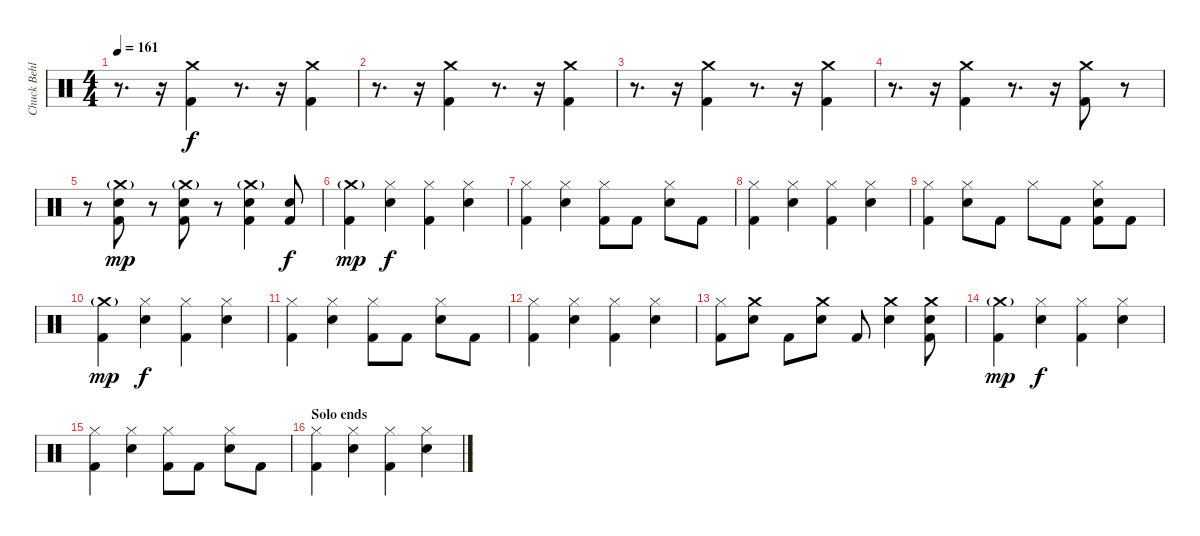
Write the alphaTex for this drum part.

\track ("Chuck Behler" "Chuck Behl") {instrument percussion}
\staff {score}
\articulation defaults
\ts (4 4)
\tempo 161
\clef neutral
\ks c
r.8{d dy f} r.16{volume 16} ("Crash medium (hit)" "Kick (hit) 2").4{volume 0} r.8{d} r.16{volume 16} ("Crash medium (hit)" "Kick (hit) 2").4{volume 0} |
r.8{d} r.16{volume 16} ("Crash medium (hit)" "Kick (hit) 2").4{volume 0} r.8{d} r.16{volume 16} ("Crash medium (hit)" "Kick (hit) 2").4{volume 0} |
r.8{d} r.16{volume 16} ("Crash medium (hit)" "Kick (hit) 2").4{volume 0} r.8{d} r.16{volume 16} ("Crash medium (hit)" "Kick (hit) 2").4{volume 0} |
r.8{d} r.16{volume 16} ("Crash medium (hit)" "Kick (hit) 2").4{volume 0} r.8{d} r.16{volume 16} ("Crash medium (hit)" "Kick (hit) 2").8{volume 7} r.8 |
r.8 ("Crash medium (hit)"{g} "Snare (hit) 2" "Kick (hit) 2").8{dy mp volume 16} r.8 ("Crash medium (hit)"{g} "Snare (hit) 2" "Kick (hit) 2").8{volume 16} r.8 ("Crash medium (hit)"{g} "Snare (hit) 2" "Kick (hit) 2").4{volume 16} ("Snare (hit) 2" "Kick (hit) 2").8{dy f} |
("Crash medium (hit)"{g} "Kick (hit) 2").4{dy mp} ("Hi-Hat (closed)" "Snare (hit) 2").4{dy f} ("Hi-Hat (closed)" "Kick (hit) 2").4 ("Hi-Hat (closed)" "Snare (hit) 2").4 |
("Hi-Hat (closed)" "Kick (hit) 2").4 ("Hi-Hat (closed)" "Snare (hit) 2").4 ("Hi-Hat (closed)" "Kick (hit) 2").8 "Kick (hit) 2".8 ("Hi-Hat (closed)" "Snare (hit) 2").8 "Kick (hit) 2".8 |
("Hi-Hat (closed)" "Kick (hit) 2").4 ("Hi-Hat (closed)" "Snare (hit) 2").4 ("Hi-Hat (closed)" "Kick (hit) 2").4 ("Hi-Hat (closed)" "Snare (hit) 2").4 |
("Hi-Hat (closed)" "Kick (hit) 2").4 ("Hi-Hat (closed)" "Snare (hit) 2").8 "Kick (hit) 2".8 "Hi-Hat (closed)".8 "Kick (hit) 2".8 ("Hi-Hat (closed)" "Snare (hit) 2" "Kick (hit) 2").8 "Kick (hit) 2".8 |
("Crash medium (hit)"{g} "Kick (hit) 2").4{dy mp} ("Hi-Hat (closed)" "Snare (hit) 2").4{dy f} ("Hi-Hat (closed)" "Kick (hit) 2").4 ("Hi-Hat (closed)" "Snare (hit) 2").4 |
("Hi-Hat (closed)" "Kick (hit) 2").4 ("Hi-Hat (closed)" "Snare (hit) 2").4 ("Hi-Hat (closed)" "Kick (hit) 2").8 "Kick (hit) 2".8 ("Hi-Hat (closed)" "Snare (hit) 2").8 "Kick (hit) 2".8 |
("Hi-Hat (closed)" "Kick (hit) 2").4 ("Hi-Hat (closed)" "Snare (hit) 2").4 ("Hi-Hat (closed)" "Kick (hit) 2").4 ("Hi-Hat (closed)" "Snare (hit) 2").4 |
("Hi-Hat (closed)" "Kick (hit) 2").8 ("Crash medium (hit)" "Snare (hit) 2").8 "Kick (hit) 2".8 ("Crash medium (hit)" "Snare (hit) 2").8 "Kick (hit) 2".8 ("Crash medium (hit)" "Snare (hit) 2").4 ("Crash medium (hit)" "Snare (hit) 2" "Kick (hit) 2").8 |
("Crash medium (hit)"{g} "Kick (hit) 2").4{dy mp} ("Hi-Hat (closed)" "Snare (hit) 2").4{dy f} ("Hi-Hat (closed)" "Kick (hit) 2").4 ("Hi-Hat (closed)" "Snare (hit) 2").4 |
("Hi-Hat (closed)" "Kick (hit) 2").4 ("Hi-Hat (closed)" "Snare (hit) 2").4 ("Hi-Hat (closed)" "Kick (hit) 2").8 "Kick (hit) 2".8 ("Hi-Hat (closed)" "Snare (hit) 2").8 "Kick (hit) 2".8 |
\section ("" "Solo ends")
("Hi-Hat (closed)" "Kick (hit) 2").4 ("Hi-Hat (closed)" "Snare (hit) 2").4 ("Hi-Hat (closed)" "Kick (hit) 2").4 ("Hi-Hat (closed)" "Snare (hit) 2").4
